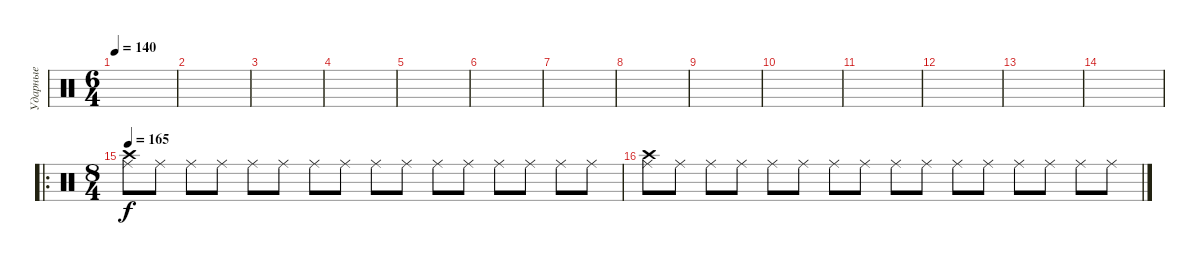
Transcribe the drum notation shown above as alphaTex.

\track ("Ударные" "Ударные") {instrument percussion}
\staff {score}
\articulation defaults
\ts (6 4)
\tempo 140
\clef neutral
\ks c
|
|
|
|
|
|
|
|
|
|
|
|
|
|
\ro
\ts (8 4)
\tempo 165
("Ride (middle)" "Crash high (hit)").8 "Ride (middle)".8 "Ride (middle)".8 "Ride (middle)".8 "Ride (middle)".8 "Ride (middle)".8 "Ride (middle)".8 "Ride (middle)".8 "Ride (middle)".8 "Ride (middle)".8 "Ride (middle)".8 "Ride (middle)".8 "Ride (middle)".8 "Ride (middle)".8 "Ride (middle)".8 "Ride (middle)".8 |
("Ride (middle)" "Crash high (hit)").8 "Ride (middle)".8 "Ride (middle)".8 "Ride (middle)".8 "Ride (middle)".8 "Ride (middle)".8 "Ride (middle)".8 "Ride (middle)".8 "Ride (middle)".8 "Ride (middle)".8 "Ride (middle)".8 "Ride (middle)".8 "Ride (middle)".8 "Ride (middle)".8 "Ride (middle)".8 "Ride (middle)".8
